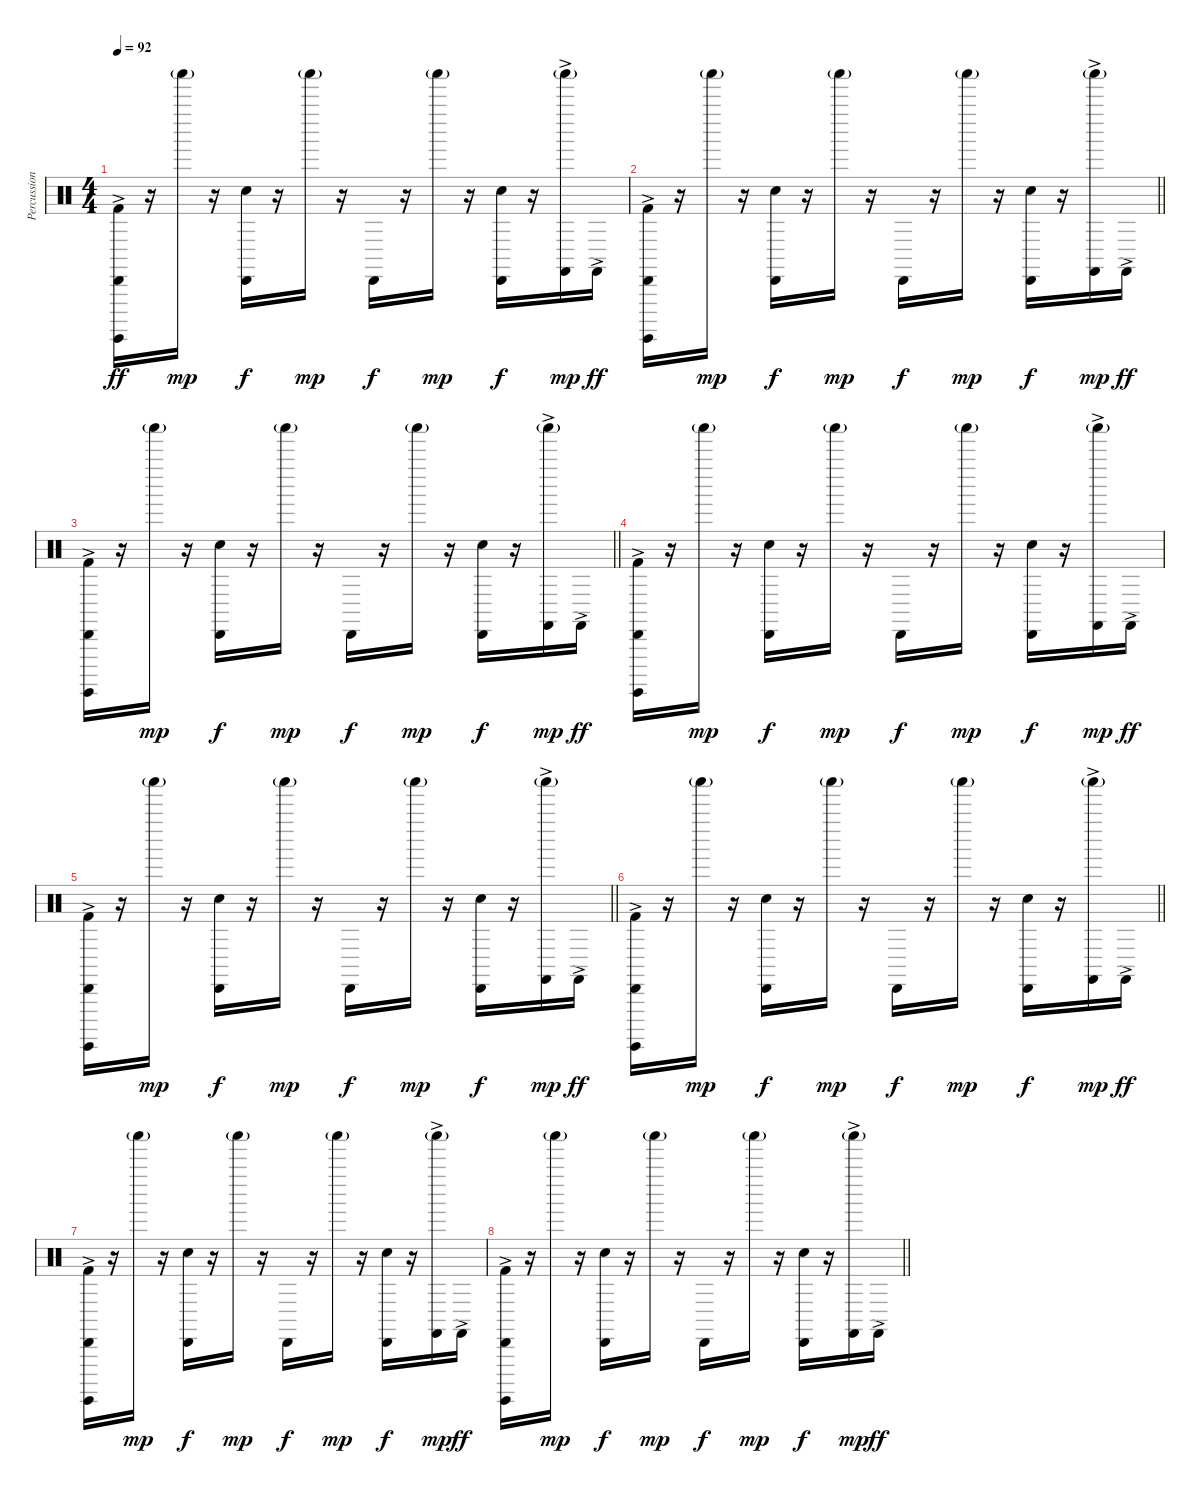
\track ("Percussion" "Percussion") {instrument percussion}
\staff {score}
\articulation defaults
\ts (4 4)
\tempo 92
\clef neutral
\ks c
("Kick (hit) 2" "Surdo (hit)"{ac} "Cabasa (hit)").16{dy ff} r.16 "Shaker (hit)"{g}.16{dy mp} r.16 ("Snare (hit) 2" "Cabasa (hit)").16{dy f} r.16 "Shaker (hit)"{g}.16{dy mp} r.16 "Cabasa (hit)".16{dy f} r.16 "Shaker (hit)"{g}.16{dy mp} r.16 ("Snare (hit) 2" "Cabasa (hit)").16{dy f} r.16 ("Castanets (hit)"{ac} "Shaker (hit)"{g}).16{dy mp} "Castanets (hit)"{ac}.16{dy ff} |
\barLineRight lightlight
("Kick (hit) 2" "Surdo (hit)"{ac} "Cabasa (hit)").16 r.16 "Shaker (hit)"{g}.16{dy mp} r.16 ("Snare (hit) 2" "Cabasa (hit)").16{dy f} r.16 "Shaker (hit)"{g}.16{dy mp} r.16 "Cabasa (hit)".16{dy f} r.16 "Shaker (hit)"{g}.16{dy mp} r.16 ("Snare (hit) 2" "Cabasa (hit)").16{dy f} r.16 ("Castanets (hit)"{ac} "Shaker (hit)"{g}).16{dy mp} "Castanets (hit)"{ac}.16{dy ff} |
\barLineRight lightlight
("Kick (hit) 2" "Surdo (hit)"{ac} "Cabasa (hit)").16 r.16 "Shaker (hit)"{g}.16{dy mp} r.16 ("Snare (hit) 2" "Cabasa (hit)").16{dy f} r.16 "Shaker (hit)"{g}.16{dy mp} r.16 "Cabasa (hit)".16{dy f} r.16 "Shaker (hit)"{g}.16{dy mp} r.16 ("Snare (hit) 2" "Cabasa (hit)").16{dy f} r.16 ("Castanets (hit)"{ac} "Shaker (hit)"{g}).16{dy mp} "Castanets (hit)"{ac}.16{dy ff} |
("Kick (hit) 2" "Surdo (hit)"{ac} "Cabasa (hit)").16 r.16 "Shaker (hit)"{g}.16{dy mp} r.16 ("Snare (hit) 2" "Cabasa (hit)").16{dy f} r.16 "Shaker (hit)"{g}.16{dy mp} r.16 "Cabasa (hit)".16{dy f} r.16 "Shaker (hit)"{g}.16{dy mp} r.16 ("Snare (hit) 2" "Cabasa (hit)").16{dy f} r.16 ("Castanets (hit)"{ac} "Shaker (hit)"{g}).16{dy mp} "Castanets (hit)"{ac}.16{dy ff} |
\barLineRight lightlight
("Kick (hit) 2" "Surdo (hit)"{ac} "Cabasa (hit)").16 r.16 "Shaker (hit)"{g}.16{dy mp} r.16 ("Snare (hit) 2" "Cabasa (hit)").16{dy f} r.16 "Shaker (hit)"{g}.16{dy mp} r.16 "Cabasa (hit)".16{dy f} r.16 "Shaker (hit)"{g}.16{dy mp} r.16 ("Snare (hit) 2" "Cabasa (hit)").16{dy f} r.16 ("Castanets (hit)"{ac} "Shaker (hit)"{g}).16{dy mp} "Castanets (hit)"{ac}.16{dy ff} |
\barLineRight lightlight
("Kick (hit) 2" "Surdo (hit)"{ac} "Cabasa (hit)").16 r.16 "Shaker (hit)"{g}.16{dy mp} r.16 ("Snare (hit) 2" "Cabasa (hit)").16{dy f} r.16 "Shaker (hit)"{g}.16{dy mp} r.16 "Cabasa (hit)".16{dy f} r.16 "Shaker (hit)"{g}.16{dy mp} r.16 ("Snare (hit) 2" "Cabasa (hit)").16{dy f} r.16 ("Castanets (hit)"{ac} "Shaker (hit)"{g}).16{dy mp} "Castanets (hit)"{ac}.16{dy ff} |
("Kick (hit) 2" "Surdo (hit)"{ac} "Cabasa (hit)").16 r.16 "Shaker (hit)"{g}.16{dy mp} r.16 ("Snare (hit) 2" "Cabasa (hit)").16{dy f} r.16 "Shaker (hit)"{g}.16{dy mp} r.16 "Cabasa (hit)".16{dy f} r.16 "Shaker (hit)"{g}.16{dy mp} r.16 ("Snare (hit) 2" "Cabasa (hit)").16{dy f} r.16 ("Castanets (hit)"{ac} "Shaker (hit)"{g}).16{dy mp} "Castanets (hit)"{ac}.16{dy ff} |
\barLineRight lightlight
("Kick (hit) 2" "Surdo (hit)"{ac} "Cabasa (hit)").16 r.16 "Shaker (hit)"{g}.16{dy mp} r.16 ("Snare (hit) 2" "Cabasa (hit)").16{dy f} r.16 "Shaker (hit)"{g}.16{dy mp} r.16 "Cabasa (hit)".16{dy f} r.16 "Shaker (hit)"{g}.16{dy mp} r.16 ("Snare (hit) 2" "Cabasa (hit)").16{dy f} r.16 ("Castanets (hit)"{ac} "Shaker (hit)"{g}).16{dy mp} "Castanets (hit)"{ac}.16{dy ff}
